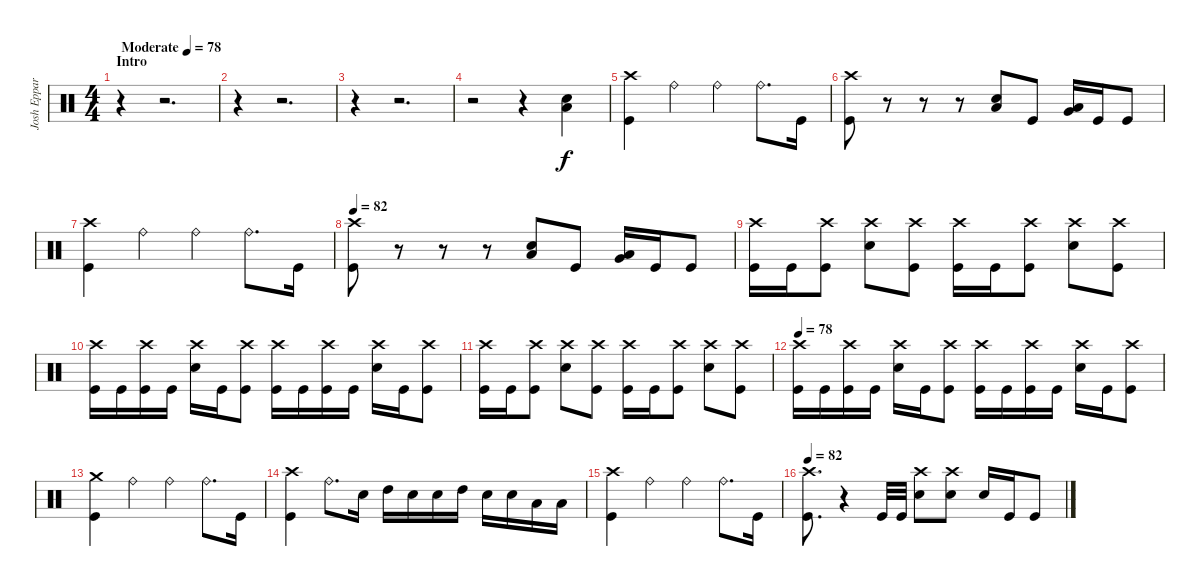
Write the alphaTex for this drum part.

\track ("Josh Eppard" "Josh Eppar") {instrument percussion}
\staff {score}
\articulation defaults
\ts (4 4)
\section ("" "Intro")
\tempo (78 "Moderate")
\clef neutral
\ks c
r.4{dy f} r.2{d} |
r.4 r.2{d} |
r.4 r.2{d} |
r.2 r.4 ("Snare (hit) 2" "Low Floor Tom (hit)").4 |
("Crash high (hit)" "Kick (hit)").4 "Ride (bell)".4 "Ride (bell)".4 "Ride (bell)".8{d} "Kick (hit)".16 |
("Crash high (hit)" "Kick (hit)").8 r.8 r.8 r.8 ("Snare (hit) 2" "Low Tom (hit)").8 "Kick (hit)".8 ("Very Low Tom (hit)" "Low Tom (hit)").16 "Kick (hit)".16 "Kick (hit)".8 |
("Crash high (hit)" "Kick (hit)").4 "Ride (bell)".4 "Ride (bell)".4 "Ride (bell)".8{d} "Kick (hit)".16 |
\tempo 82
("Crash high (hit)" "Kick (hit)").8 r.8 r.8 r.8 ("Snare (hit) 2" "Low Tom (hit)").8 "Kick (hit)".8 ("Very Low Tom (hit)" "Low Tom (hit)").16 "Kick (hit)".16 "Kick (hit)".8 |
("Crash high (hit)" "Kick (hit)").16 "Kick (hit)".16 ("Crash high (hit)" "Kick (hit)").8 ("Crash high (hit)" "Snare (hit) 2").8 ("Crash high (hit)" "Kick (hit)").8 ("Crash high (hit)" "Kick (hit)").16 "Kick (hit)".16 ("Crash high (hit)" "Kick (hit)").8 ("Crash high (hit)" "Snare (hit) 2").8 ("Crash high (hit)" "Kick (hit)").8 |
("Crash high (hit)" "Kick (hit)").16 "Kick (hit)".16 ("Crash high (hit)" "Kick (hit)").16 "Kick (hit)".16 ("Crash high (hit)" "Snare (hit) 2").16 "Kick (hit)".16 ("Crash high (hit)" "Kick (hit)").8 ("Crash high (hit)" "Kick (hit)").16 "Kick (hit)".16 ("Crash high (hit)" "Kick (hit)").16 "Kick (hit)".16 ("Crash high (hit)" "Snare (hit) 2").16 "Kick (hit)".16 ("Crash high (hit)" "Kick (hit)").8 |
("Crash high (hit)" "Kick (hit)").16 "Kick (hit)".16 ("Crash high (hit)" "Kick (hit)").8 ("Crash high (hit)" "Snare (hit) 2").8 ("Crash high (hit)" "Kick (hit)").8 ("Crash high (hit)" "Kick (hit)").16 "Kick (hit)".16 ("Crash high (hit)" "Kick (hit)").8 ("Crash high (hit)" "Snare (hit) 2").8 ("Crash high (hit)" "Kick (hit)").8 |
\tempo 78
("Crash high (hit)" "Kick (hit)").16 "Kick (hit)".16 ("Crash high (hit)" "Kick (hit)").16 "Kick (hit)".16 ("Crash high (hit)" "Snare (hit) 2").16 "Kick (hit)".16 ("Crash high (hit)" "Kick (hit)").8 ("Crash high (hit)" "Kick (hit)").16 "Kick (hit)".16 ("Crash high (hit)" "Kick (hit)").16 "Kick (hit)".16 ("Crash high (hit)" "Snare (hit) 2").16 "Kick (hit)".16 ("Crash high (hit)" "Kick (hit)").8 |
("Kick (hit)" "Crash medium (hit)").4 "Ride (bell)".4 "Ride (bell)".4 "Ride (bell)".8{d} "Kick (hit)".16 |
("Crash high (hit)" "Kick (hit)").4 "Ride (bell)".8{d} "Snare (hit) 2".16 "High Tom (hit)".16 "Snare (hit) 2".16 "Snare (hit) 2".16 "High Tom (hit)".16 "Snare (hit) 2".16 "Snare (hit) 2".16 "Low Tom (hit)".16 "Low Tom (hit)".16 |
("Crash high (hit)" "Kick (hit)").4 "Ride (bell)".4 "Ride (bell)".4 "Ride (bell)".8{d} "Kick (hit)".16 |
\tempo 82
("Crash high (hit)" "Kick (hit)").8{d} r.4 "Kick (hit)".32 "Kick (hit)".32 ("Crash high (hit)" "Snare (hit) 2").8 ("Snare (hit) 2" "Crash high (hit)").8 "Snare (hit) 2".16 "Kick (hit)".16 "Kick (hit)".8
